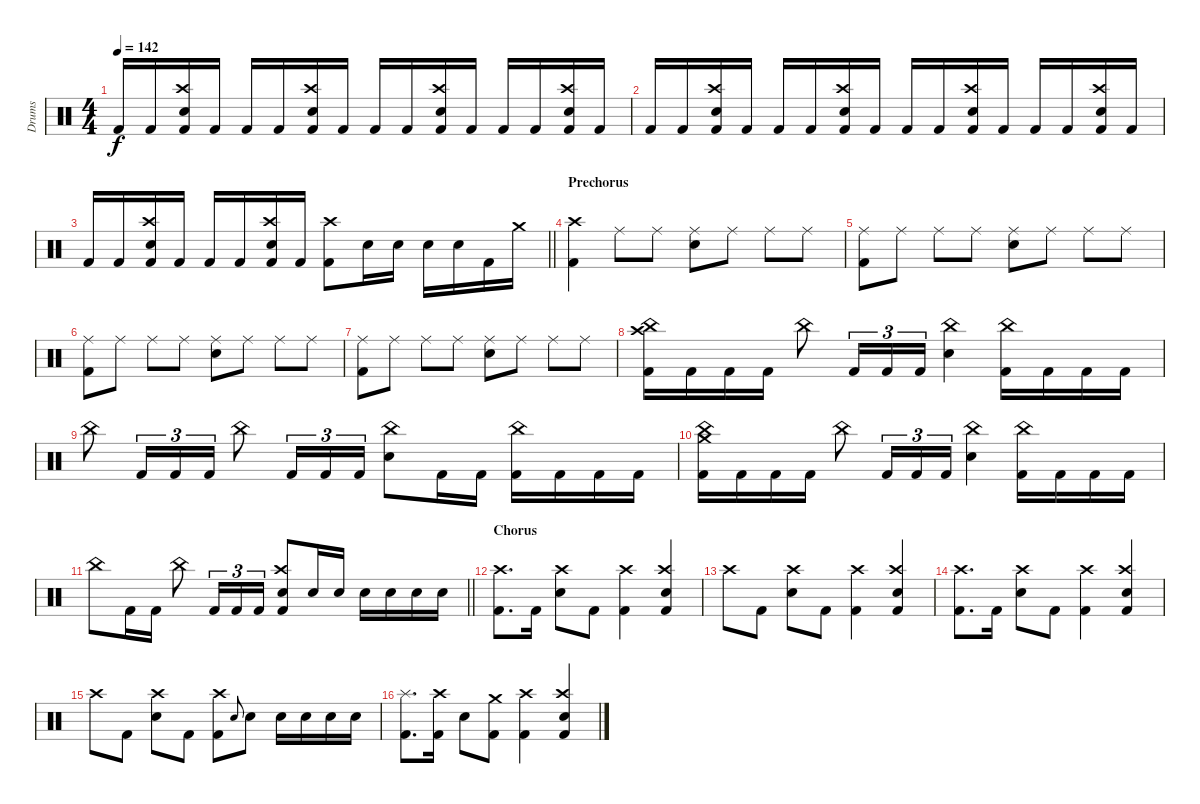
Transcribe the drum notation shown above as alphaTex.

\track ("Drums" "Drums") {instrument percussion}
\staff {score}
\articulation defaults
\ts (4 4)
\tempo 142
\clef neutral
\ks c "Kick (hit) 2".16{dy f} "Kick (hit) 2".16
("Crash high (hit)" "Electric Snare (hit)" "Kick (hit) 2").16 "Kick (hit) 2".16 "Kick (hit) 2".16 "Kick (hit) 2".16 ("Crash high (hit)" "Electric Snare (hit)" "Kick (hit) 2").16 "Kick (hit) 2".16 "Kick (hit) 2".16 "Kick (hit) 2".16 ("Crash high (hit)" "Electric Snare (hit)" "Kick (hit) 2").16 "Kick (hit) 2".16 "Kick (hit) 2".16 "Kick (hit) 2".16 ("Crash high (hit)" "Electric Snare (hit)" "Kick (hit) 2").16 "Kick (hit) 2".16 |
"Kick (hit) 2".16 "Kick (hit) 2".16 ("Crash high (hit)" "Electric Snare (hit)" "Kick (hit) 2").16 "Kick (hit) 2".16 "Kick (hit) 2".16 "Kick (hit) 2".16 ("Crash high (hit)" "Electric Snare (hit)" "Kick (hit) 2").16 "Kick (hit) 2".16 "Kick (hit) 2".16 "Kick (hit) 2".16 ("Crash high (hit)" "Electric Snare (hit)" "Kick (hit) 2").16 "Kick (hit) 2".16 "Kick (hit) 2".16 "Kick (hit) 2".16 ("Crash high (hit)" "Electric Snare (hit)" "Kick (hit) 2").16 "Kick (hit) 2".16 |
\barLineRight lightlight "Kick (hit) 2".16 "Kick (hit) 2".16
("Crash high (hit)" "Electric Snare (hit)" "Kick (hit) 2").16 "Kick (hit) 2".16 "Kick (hit) 2".16 "Kick (hit) 2".16 ("Crash high (hit)" "Electric Snare (hit)" "Kick (hit) 2").16 "Kick (hit) 2".16 ("Crash high (hit)" "Kick (hit) 2").8 "Electric Snare (hit)".16 "Electric Snare (hit)".16 "Electric Snare (hit)".16 "Electric Snare (hit)".16 "Kick (hit) 2".16 "Crash medium (hit)".16 |
\section ("" "Prechorus")
("Crash high (hit)" "Kick (hit) 2").4 "Ride (middle)".8 "Ride (middle)".8 ("Ride (middle)" "Electric Snare (hit)").8 "Ride (middle)".8 "Ride (middle)".8 "Ride (middle)".8 |
("Ride (middle)" "Kick (hit) 2").8 "Ride (middle)".8 "Ride (middle)".8 "Ride (middle)".8 ("Ride (middle)" "Electric Snare (hit)").8 "Ride (middle)".8 "Ride (middle)".8 "Ride (middle)".8 |
("Ride (middle)" "Kick (hit) 2").8 "Ride (middle)".8 "Ride (middle)".8 "Ride (middle)".8 ("Ride (middle)" "Electric Snare (hit)").8 "Ride (middle)".8 "Ride (middle)".8 "Ride (middle)".8 |
("Ride (middle)" "Kick (hit) 2").8 "Ride (middle)".8 "Ride (middle)".8 "Ride (middle)".8 ("Ride (middle)" "Electric Snare (hit)").8 "Ride (middle)".8 "Ride (middle)".8 "Ride (middle)".8 |
("Crash high (hit)" "China (hit)" "Kick (hit) 2").16 "Kick (hit) 2".16 "Kick (hit) 2".16 "Kick (hit) 2".16 "China (hit)".8 "Kick (hit) 2".16{tu (3 2)} "Kick (hit) 2".16{tu (3 2)} "Kick (hit) 2".16{tu (3 2)} ("China (hit)" "Electric Snare (hit)").4 ("China (hit)" "Kick (hit) 2").16 "Kick (hit) 2".16 "Kick (hit) 2".16 "Kick (hit) 2".16 |
"China (hit)".8 "Kick (hit) 2".16{tu (3 2)} "Kick (hit) 2".16{tu (3 2)} "Kick (hit) 2".16{tu (3 2)} "China (hit)".8 "Kick (hit) 2".16{tu (3 2)} "Kick (hit) 2".16{tu (3 2)} "Kick (hit) 2".16{tu (3 2)} ("China (hit)" "Electric Snare (hit)").8 "Kick (hit) 2".16 "Kick (hit) 2".16 ("China (hit)" "Kick (hit) 2").16 "Kick (hit) 2".16 "Kick (hit) 2".16 "Kick (hit) 2".16 |
("Crash medium (hit)" "China (hit)" "Kick (hit) 2").16 "Kick (hit) 2".16 "Kick (hit) 2".16 "Kick (hit) 2".16 "China (hit)".8 "Kick (hit) 2".16{tu (3 2)} "Kick (hit) 2".16{tu (3 2)} "Kick (hit) 2".16{tu (3 2)} ("China (hit)" "Electric Snare (hit)").4 ("China (hit)" "Kick (hit) 2").16 "Kick (hit) 2".16 "Kick (hit) 2".16 "Kick (hit) 2".16 |
\barLineRight lightlight "China (hit)".8 "Kick (hit) 2".16 "Kick (hit) 2".16 "China (hit)".8 "Kick (hit) 2".16{tu (3 2)} "Kick (hit) 2".16{tu (3 2)} "Kick (hit) 2".16{tu (3 2)}
("Crash high (hit)" "Electric Snare (hit)" "Kick (hit) 2").8 "Electric Snare (hit)".16 "Electric Snare (hit)".16 "Electric Snare (hit)".16 "Electric Snare (hit)".16 "Electric Snare (hit)".16 "Electric Snare (hit)".16 |
\section ("" "Chorus")
("Crash high (hit)" "Kick (hit) 2").8{d} "Kick (hit) 2".16 ("Crash high (hit)" "Electric Snare (hit)").8 "Kick (hit) 2".8 ("Crash high (hit)" "Kick (hit) 2").4 ("Crash high (hit)" "Electric Snare (hit)" "Kick (hit) 2").4 |
"Crash high (hit)".8 "Kick (hit) 2".8 ("Crash high (hit)" "Electric Snare (hit)").8 "Kick (hit) 2".8 ("Crash high (hit)" "Kick (hit) 2").4 ("Crash high (hit)" "Electric Snare (hit)" "Kick (hit) 2").4 |
("Crash high (hit)" "Kick (hit) 2").8{d} "Kick (hit) 2".16 ("Crash high (hit)" "Electric Snare (hit)").8 "Kick (hit) 2".8 ("Crash high (hit)" "Kick (hit) 2").4 ("Crash high (hit)" "Electric Snare (hit)" "Kick (hit) 2").4 |
"Crash high (hit)".8 "Kick (hit) 2".8 ("Crash high (hit)" "Electric Snare (hit)").8 "Kick (hit) 2".8 ("Crash high (hit)" "Kick (hit) 2").8 "Electric Snare (hit)".8{gr onbeat} "Electric Snare (hit)".8 "Electric Snare (hit)".16 "Electric Snare (hit)".16 "Electric Snare (hit)".16 "Electric Snare (hit)".16 |
("Splash (hit)" "Kick (hit) 2").8{d} ("Crash high (hit)" "Kick (hit) 2").16 "Electric Snare (hit)".8 ("Crash medium (hit)" "Kick (hit) 2").8 ("Crash high (hit)" "Kick (hit) 2").4 ("Crash high (hit)" "Electric Snare (hit)" "Kick (hit) 2").4
